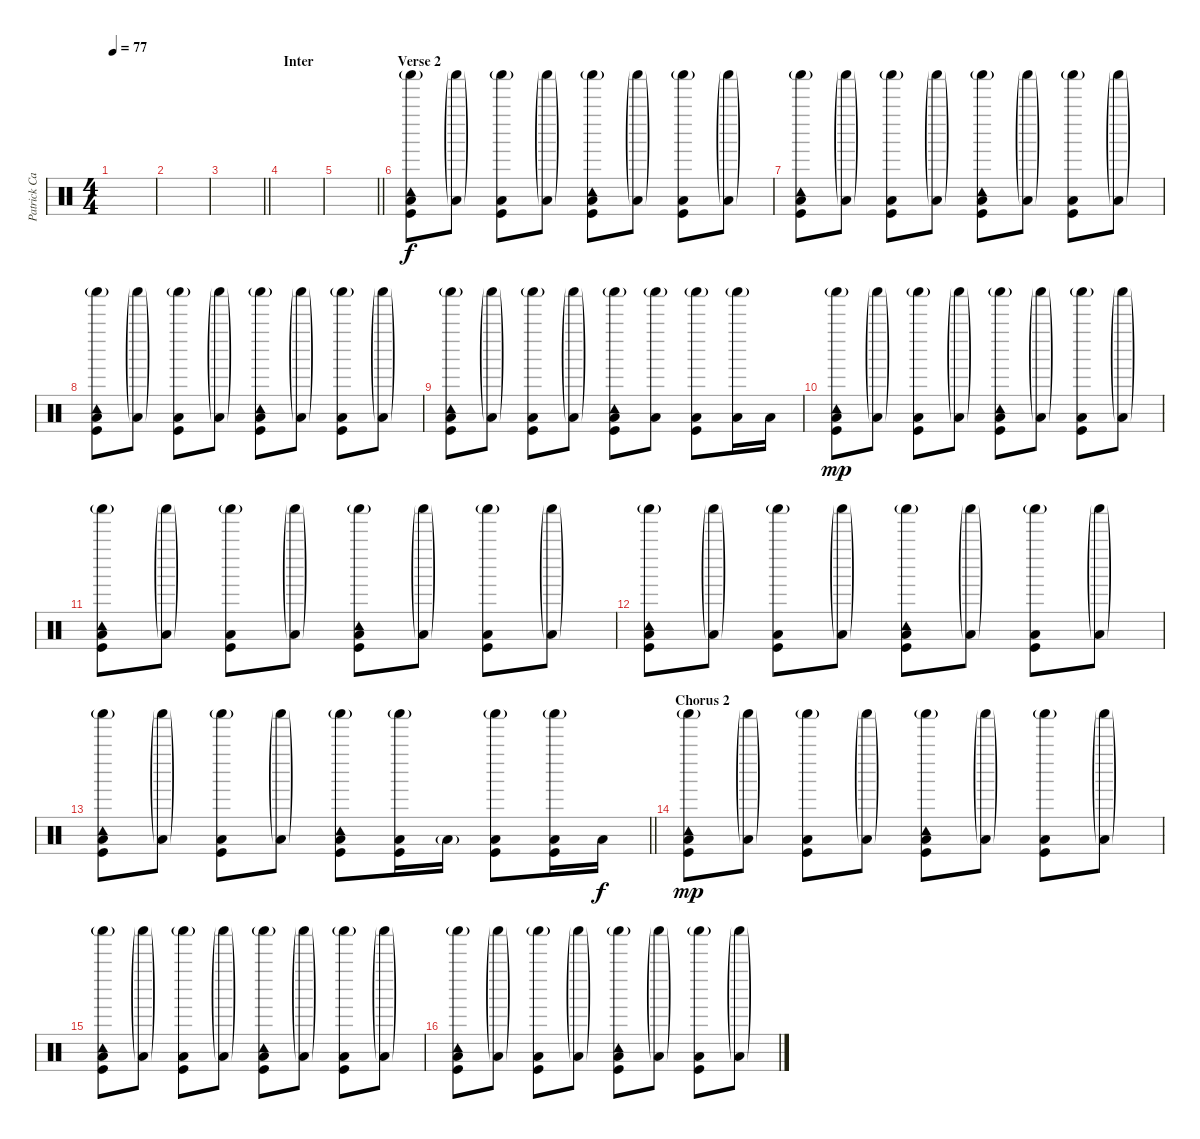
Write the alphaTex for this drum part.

\track ("Patrick Carney [Drums]" "Patrick Ca") {instrument percussion}
\staff {score}
\articulation defaults
\ts (4 4)
\tempo 77
\clef neutral
\ks c
|
|
\barLineRight lightlight
|
\section ("" "Inter")
|
\barLineRight lightlight
|
\section ("" "Verse 2")
("Tambourine (hit)" "Shaker (hit)"{g} "Low Floor Tom (hit)" "Kick (hit)").8 ("Shaker (hit)"{g} "Low Floor Tom (hit)"{g}).8 ("Shaker (hit)"{g} "Low Floor Tom (hit)" "Kick (hit)").8 ("Shaker (hit)"{g} "Low Floor Tom (hit)"{g}).8 ("Tambourine (hit)" "Shaker (hit)"{g} "Low Floor Tom (hit)" "Kick (hit)").8 ("Shaker (hit)"{g} "Low Floor Tom (hit)"{g}).8 ("Shaker (hit)"{g} "Low Floor Tom (hit)" "Kick (hit)").8 ("Shaker (hit)"{g} "Low Floor Tom (hit)"{g}).8 |
("Tambourine (hit)" "Shaker (hit)"{g} "Low Floor Tom (hit)" "Kick (hit)").8 ("Shaker (hit)"{g} "Low Floor Tom (hit)"{g}).8 ("Shaker (hit)"{g} "Low Floor Tom (hit)" "Kick (hit)").8 ("Shaker (hit)"{g} "Low Floor Tom (hit)"{g}).8 ("Tambourine (hit)" "Shaker (hit)"{g} "Low Floor Tom (hit)" "Kick (hit)").8 ("Shaker (hit)"{g} "Low Floor Tom (hit)"{g}).8 ("Shaker (hit)"{g} "Low Floor Tom (hit)" "Kick (hit)").8 ("Shaker (hit)"{g} "Low Floor Tom (hit)"{g}).8 |
("Tambourine (hit)" "Shaker (hit)"{g} "Low Floor Tom (hit)" "Kick (hit)").8 ("Shaker (hit)"{g} "Low Floor Tom (hit)"{g}).8 ("Shaker (hit)"{g} "Low Floor Tom (hit)" "Kick (hit)").8 ("Shaker (hit)"{g} "Low Floor Tom (hit)"{g}).8 ("Tambourine (hit)" "Shaker (hit)"{g} "Low Floor Tom (hit)" "Kick (hit)").8 ("Shaker (hit)"{g} "Low Floor Tom (hit)"{g}).8 ("Shaker (hit)"{g} "Low Floor Tom (hit)" "Kick (hit)").8 ("Shaker (hit)"{g} "Low Floor Tom (hit)"{g}).8 |
("Tambourine (hit)" "Shaker (hit)"{g} "Low Floor Tom (hit)" "Kick (hit)").8 ("Shaker (hit)"{g} "Low Floor Tom (hit)"{g}).8 ("Shaker (hit)"{g} "Low Floor Tom (hit)" "Kick (hit)").8 ("Shaker (hit)"{g} "Low Floor Tom (hit)"{g}).8 ("Tambourine (hit)" "Shaker (hit)"{g} "Low Floor Tom (hit)" "Kick (hit)").8 ("Shaker (hit)"{g} "Low Floor Tom (hit)").8 ("Shaker (hit)"{g} "Low Floor Tom (hit)" "Kick (hit)").8 ("Shaker (hit)"{g} "Low Floor Tom (hit)").16 "Low Floor Tom (hit)".16{dy f} |
("Tambourine (hit)" "Shaker (hit)"{g} "Low Floor Tom (hit)" "Kick (hit)").8{dy mp} ("Shaker (hit)"{g} "Low Floor Tom (hit)"{g}).8 ("Shaker (hit)"{g} "Low Floor Tom (hit)" "Kick (hit)").8 ("Shaker (hit)"{g} "Low Floor Tom (hit)"{g}).8 ("Tambourine (hit)" "Shaker (hit)"{g} "Low Floor Tom (hit)" "Kick (hit)").8 ("Shaker (hit)"{g} "Low Floor Tom (hit)"{g}).8 ("Shaker (hit)"{g} "Low Floor Tom (hit)" "Kick (hit)").8 ("Shaker (hit)"{g} "Low Floor Tom (hit)"{g}).8 |
("Tambourine (hit)" "Shaker (hit)"{g} "Low Floor Tom (hit)" "Kick (hit)").8 ("Shaker (hit)"{g} "Low Floor Tom (hit)"{g}).8 ("Shaker (hit)"{g} "Low Floor Tom (hit)" "Kick (hit)").8 ("Shaker (hit)"{g} "Low Floor Tom (hit)"{g}).8 ("Tambourine (hit)" "Shaker (hit)"{g} "Low Floor Tom (hit)" "Kick (hit)").8 ("Shaker (hit)"{g} "Low Floor Tom (hit)"{g}).8 ("Shaker (hit)"{g} "Low Floor Tom (hit)" "Kick (hit)").8 ("Shaker (hit)"{g} "Low Floor Tom (hit)"{g}).8 |
("Tambourine (hit)" "Shaker (hit)"{g} "Low Floor Tom (hit)" "Kick (hit)").8 ("Shaker (hit)"{g} "Low Floor Tom (hit)"{g}).8 ("Shaker (hit)"{g} "Low Floor Tom (hit)" "Kick (hit)").8 ("Shaker (hit)"{g} "Low Floor Tom (hit)"{g}).8 ("Tambourine (hit)" "Shaker (hit)"{g} "Low Floor Tom (hit)" "Kick (hit)").8 ("Shaker (hit)"{g} "Low Floor Tom (hit)"{g}).8 ("Shaker (hit)"{g} "Low Floor Tom (hit)" "Kick (hit)").8 ("Shaker (hit)"{g} "Low Floor Tom (hit)"{g}).8 |
\barLineRight lightlight
("Tambourine (hit)" "Shaker (hit)"{g} "Low Floor Tom (hit)" "Kick (hit)").8 ("Shaker (hit)"{g} "Low Floor Tom (hit)"{g}).8 ("Shaker (hit)"{g} "Low Floor Tom (hit)" "Kick (hit)").8 ("Shaker (hit)"{g} "Low Floor Tom (hit)"{g}).8 ("Tambourine (hit)" "Shaker (hit)"{g} "Low Floor Tom (hit)" "Kick (hit)").8 ("Shaker (hit)"{g} "Low Floor Tom (hit)" "Kick (hit)").16 "Low Floor Tom (hit)"{g}.16 ("Shaker (hit)"{g} "Low Floor Tom (hit)" "Kick (hit)").8 ("Shaker (hit)"{g} "Low Floor Tom (hit)" "Kick (hit)").16 "Low Floor Tom (hit)".16{dy f} |
\section ("" "Chorus 2")
("Tambourine (hit)" "Shaker (hit)"{g} "Low Floor Tom (hit)" "Kick (hit)").8{dy mp volume 13} ("Shaker (hit)"{g} "Low Floor Tom (hit)"{g}).8 ("Shaker (hit)"{g} "Low Floor Tom (hit)" "Kick (hit)").8 ("Shaker (hit)"{g} "Low Floor Tom (hit)"{g}).8 ("Tambourine (hit)" "Shaker (hit)"{g} "Low Floor Tom (hit)" "Kick (hit)").8 ("Shaker (hit)"{g} "Low Floor Tom (hit)"{g}).8 ("Shaker (hit)"{g} "Low Floor Tom (hit)" "Kick (hit)").8 ("Shaker (hit)"{g} "Low Floor Tom (hit)"{g}).8 |
("Tambourine (hit)" "Shaker (hit)"{g} "Low Floor Tom (hit)" "Kick (hit)").8 ("Shaker (hit)"{g} "Low Floor Tom (hit)"{g}).8 ("Shaker (hit)"{g} "Low Floor Tom (hit)" "Kick (hit)").8 ("Shaker (hit)"{g} "Low Floor Tom (hit)"{g}).8 ("Tambourine (hit)" "Shaker (hit)"{g} "Low Floor Tom (hit)" "Kick (hit)").8 ("Shaker (hit)"{g} "Low Floor Tom (hit)"{g}).8 ("Shaker (hit)"{g} "Low Floor Tom (hit)" "Kick (hit)").8 ("Shaker (hit)"{g} "Low Floor Tom (hit)"{g}).8 |
("Tambourine (hit)" "Shaker (hit)"{g} "Low Floor Tom (hit)" "Kick (hit)").8 ("Shaker (hit)"{g} "Low Floor Tom (hit)"{g}).8 ("Shaker (hit)"{g} "Low Floor Tom (hit)" "Kick (hit)").8 ("Shaker (hit)"{g} "Low Floor Tom (hit)"{g}).8 ("Tambourine (hit)" "Shaker (hit)"{g} "Low Floor Tom (hit)" "Kick (hit)").8 ("Shaker (hit)"{g} "Low Floor Tom (hit)"{g}).8 ("Shaker (hit)"{g} "Low Floor Tom (hit)" "Kick (hit)").8 ("Shaker (hit)"{g} "Low Floor Tom (hit)"{g}).8
